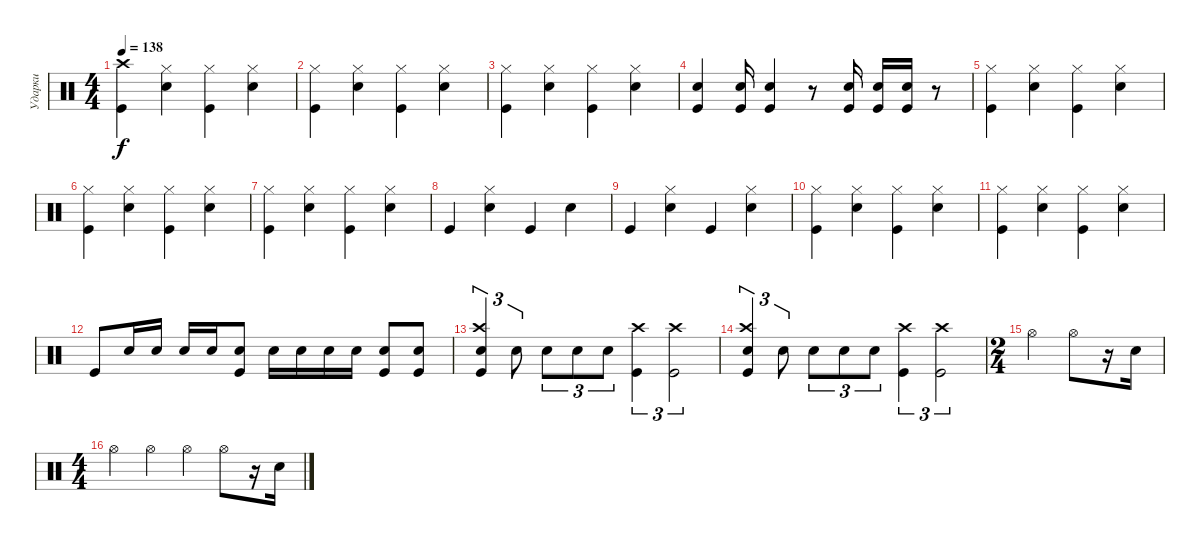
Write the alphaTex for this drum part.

\track ("Ударки" "Ударки") {instrument percussion}
\staff {score}
\articulation defaults
\ts (4 4)
\tempo 138
\clef neutral
\ks c
("Kick (hit)" "Crash high (hit)").4{dy f} ("Snare (hit) 2" "Hi-Hat (closed)").4 ("Kick (hit)" "Hi-Hat (closed)").4 ("Snare (hit) 2" "Hi-Hat (closed)").4 |
("Kick (hit)" "Hi-Hat (closed)").4 ("Snare (hit) 2" "Hi-Hat (closed)").4 ("Kick (hit)" "Hi-Hat (closed)").4 ("Snare (hit) 2" "Hi-Hat (closed)").4 |
("Kick (hit)" "Hi-Hat (closed)").4 ("Snare (hit) 2" "Hi-Hat (closed)").4 ("Kick (hit)" "Hi-Hat (closed)").4 ("Snare (hit) 2" "Hi-Hat (closed)").4 |
("Snare (hit) 2" "Kick (hit)").4 ("Snare (hit) 2" "Kick (hit)").16 ("Snare (hit) 2" "Kick (hit)").4 r.8 ("Snare (hit) 2" "Kick (hit)").16 ("Snare (hit) 2" "Kick (hit)").16 ("Snare (hit) 2" "Kick (hit)").16 r.8 |
("Kick (hit)" "Hi-Hat (closed)").4 ("Snare (hit) 2" "Hi-Hat (closed)").4 ("Kick (hit)" "Hi-Hat (closed)").4 ("Snare (hit) 2" "Hi-Hat (closed)").4 |
("Kick (hit)" "Hi-Hat (closed)").4 ("Snare (hit) 2" "Hi-Hat (closed)").4 ("Kick (hit)" "Hi-Hat (closed)").4 ("Snare (hit) 2" "Hi-Hat (closed)").4 |
("Kick (hit)" "Hi-Hat (closed)").4 ("Snare (hit) 2" "Hi-Hat (closed)").4 ("Kick (hit)" "Hi-Hat (closed)").4 ("Snare (hit) 2" "Hi-Hat (closed)").4 |
"Kick (hit)".4 ("Hi-Hat (closed)" "Snare (hit) 2").4 "Kick (hit)".4 "Snare (hit) 2".4 |
"Kick (hit)".4 ("Snare (hit) 2" "Hi-Hat (closed)").4 "Kick (hit)".4 ("Hi-Hat (closed)" "Snare (hit) 2").4 |
("Kick (hit)" "Hi-Hat (closed)").4 ("Snare (hit) 2" "Hi-Hat (closed)").4 ("Kick (hit)" "Hi-Hat (closed)").4 ("Snare (hit) 2" "Hi-Hat (closed)").4 |
("Kick (hit)" "Hi-Hat (closed)").4 ("Snare (hit) 2" "Hi-Hat (closed)").4 ("Kick (hit)" "Hi-Hat (closed)").4 ("Snare (hit) 2" "Hi-Hat (closed)").4 |
"Kick (hit)".8 "Snare (hit) 2".16 "Snare (hit) 2".16 "Snare (hit) 2".16 "Snare (hit) 2".16 ("Snare (hit) 2" "Kick (hit)").8 "Snare (hit) 2".16 "Snare (hit) 2".16 "Snare (hit) 2".16 "Snare (hit) 2".16 ("Kick (hit)" "Snare (hit) 2").8 ("Snare (hit) 2" "Kick (hit)").8 |
("Kick (hit)" "Snare (hit) 2" "Crash high (hit)").4{tu (3 2)} "Snare (hit) 2".8{tu (3 2)} "Snare (hit) 2".8{tu (3 2)} "Snare (hit) 2".8{tu (3 2)} "Snare (hit) 2".8{tu (3 2)} ("Crash high (hit)" "Kick (hit)").4{tu (3 2)} ("Crash high (hit)" "Kick (hit)").2{tu (3 2)} |
("Kick (hit)" "Snare (hit) 2" "Crash high (hit)").4{tu (3 2)} "Snare (hit) 2".8{tu (3 2)} "Snare (hit) 2".8{tu (3 2)} "Snare (hit) 2".8{tu (3 2)} "Snare (hit) 2".8{tu (3 2)} ("Crash high (hit)" "Kick (hit)").4{tu (3 2)} ("Crash high (hit)" "Kick (hit)").2{tu (3 2)} |
\ts (2 4)
"Hi-Hat (open)".4 "Hi-Hat (open)".8 r.16 "Snare (hit) 2".16 |
\ts (4 4)
"Hi-Hat (open)".4 "Hi-Hat (open)".4 "Hi-Hat (open)".4 "Hi-Hat (open)".8 r.16 "Snare (hit) 2".16
